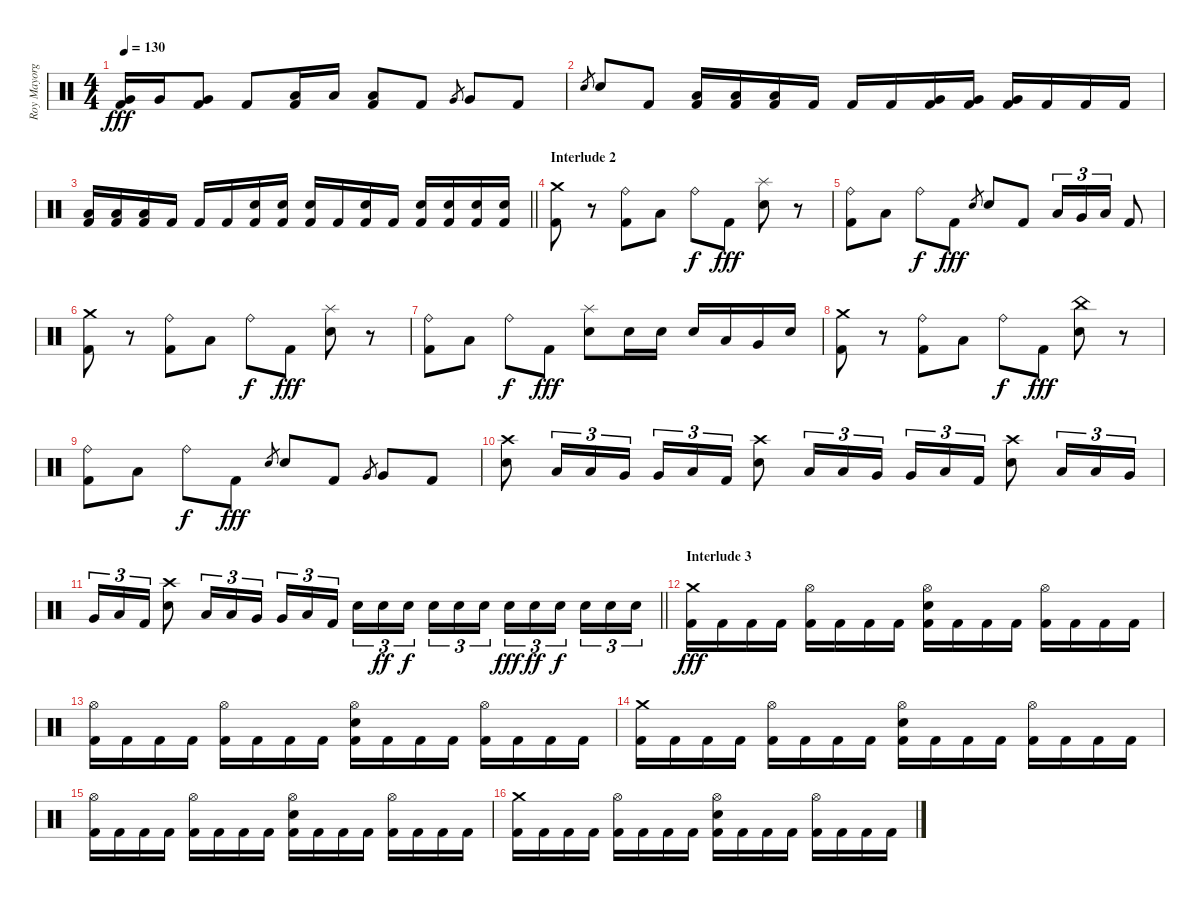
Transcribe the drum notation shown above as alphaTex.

\track ("Roy Mayorga" "Roy Mayorg") {instrument percussion}
\staff {score}
\articulation defaults
\ts (4 4)
\tempo 130
\clef neutral
\ks c
("Very Low Tom (hit)" "Kick (hit) 2").16{dy fff} "Very Low Tom (hit)".16 ("Very Low Tom (hit)" "Kick (hit) 2").8 "Kick (hit) 2".8 ("Low Floor Tom (hit)" "Kick (hit) 2").16 "Low Floor Tom (hit)".16 ("Low Floor Tom (hit)" "Kick (hit) 2").8 "Kick (hit) 2".8 "Very Low Tom (hit)".8{gr} "Very Low Tom (hit)".8 "Kick (hit) 2".8 |
"Electric Snare (hit)".8{gr} "Electric Snare (hit)".8 "Kick (hit) 2".8 ("Low Tom (hit)" "Kick (hit) 2").16 ("Low Tom (hit)" "Kick (hit) 2").16 ("Low Tom (hit)" "Kick (hit) 2").16 "Kick (hit) 2".16 "Kick (hit) 2".16 "Kick (hit) 2".16 ("Very Low Tom (hit)" "Kick (hit) 2").16 ("Very Low Tom (hit)" "Kick (hit) 2").16 ("Very Low Tom (hit)" "Kick (hit) 2").16 "Kick (hit) 2".16 "Kick (hit) 2".16 "Kick (hit) 2".16 |
\barLineRight lightlight
("Low Floor Tom (hit)" "Kick (hit) 2").16 ("Low Floor Tom (hit)" "Kick (hit) 2").16 ("Low Floor Tom (hit)" "Kick (hit) 2").16 "Kick (hit) 2".16 "Kick (hit) 2".16 "Kick (hit) 2".16 ("Electric Snare (hit)" "Kick (hit) 2").16 ("Electric Snare (hit)" "Kick (hit) 2").16 ("Electric Snare (hit)" "Kick (hit) 2").16 "Kick (hit) 2".16 ("Electric Snare (hit)" "Kick (hit) 2").16 "Kick (hit) 2".16 ("Electric Snare (hit)" "Kick (hit) 2").16 ("Electric Snare (hit)" "Kick (hit) 2").16 ("Electric Snare (hit)" "Kick (hit) 2").16 ("Electric Snare (hit)" "Kick (hit) 2").16 |
\section ("" "Interlude 2")
("Crash medium (hit)" "Kick (hit) 2").8 r.8 ("Ride (bell)" "Kick (hit) 2").8 "Low Tom (hit)".8 "Ride (bell)".8{dy f} "Kick (hit) 2".8{dy fff} ("Splash (hit)" "Electric Snare (hit)").8 r.8 |
("Ride (bell)" "Kick (hit) 2").8 "Low Tom (hit)".8 "Ride (bell)".8{dy f} "Kick (hit) 2".8{dy fff} "Electric Snare (hit)".8{gr} "Electric Snare (hit)".8 "Kick (hit) 2".8 "Low Tom (hit)".16{tu (3 2)} "Very Low Tom (hit)".16{tu (3 2)} "Low Floor Tom (hit)".16{tu (3 2)} "Kick (hit) 2".8 |
("Crash medium (hit)" "Kick (hit) 2").8 r.8 ("Ride (bell)" "Kick (hit) 2").8 "Low Tom (hit)".8 "Ride (bell)".8{dy f} "Kick (hit) 2".8{dy fff} ("Splash (hit)" "Electric Snare (hit)").8 r.8 |
("Ride (bell)" "Kick (hit) 2").8 "Low Tom (hit)".8 "Ride (bell)".8{dy f} "Kick (hit) 2".8{dy fff} ("Splash (hit)" "Electric Snare (hit)").8 "Electric Snare (hit)".16 "Electric Snare (hit)".16 "Electric Snare (hit)".16 "Low Tom (hit)".16 "Very Low Tom (hit)".16 "Electric Snare (hit)".16 |
("Crash medium (hit)" "Kick (hit) 2").8 r.8 ("Ride (bell)" "Kick (hit) 2").8 "Low Tom (hit)".8 "Ride (bell)".8{dy f} "Kick (hit) 2".8{dy fff} ("China (hit)" "Electric Snare (hit)").8 r.8 |
("Ride (bell)" "Kick (hit) 2").8 "Low Tom (hit)".8 "Ride (bell)".8{dy f} "Kick (hit) 2".8{dy fff} "Electric Snare (hit)".8{gr} "Electric Snare (hit)".8 "Kick (hit) 2".8 "Very Low Tom (hit)".8{gr} "Very Low Tom (hit)".8 "Kick (hit) 2".8 |
("Crash high (hit)" "Electric Snare (hit)").8 "Low Tom (hit)".16{tu (3 2)} "Low Tom (hit)".16{tu (3 2)} "Very Low Tom (hit)".16{tu (3 2)} "Very Low Tom (hit)".16{tu (3 2)} "Low Floor Tom (hit)".16{tu (3 2)} "Kick (hit) 2".16{tu (3 2)} ("Crash high (hit)" "Electric Snare (hit)").8 "Low Tom (hit)".16{tu (3 2)} "Low Tom (hit)".16{tu (3 2)} "Very Low Tom (hit)".16{tu (3 2) beam splitsecondary} "Very Low Tom (hit)".16{tu (3 2)} "Low Floor Tom (hit)".16{tu (3 2)} "Kick (hit) 2".16{tu (3 2)} ("Crash high (hit)" "Electric Snare (hit)").8 "Low Tom (hit)".16{tu (3 2)} "Low Tom (hit)".16{tu (3 2)} "Very Low Tom (hit)".16{tu (3 2)} |
\barLineRight lightlight "Very Low Tom (hit)".16{tu (3 2)} "Low Floor Tom (hit)".16{tu (3 2)} "Kick (hit) 2".16{tu (3 2)}
("Crash high (hit)" "Electric Snare (hit)").8 "Low Tom (hit)".16{tu (3 2)} "Low Tom (hit)".16{tu (3 2)} "Very Low Tom (hit)".16{tu (3 2) beam splitsecondary} "Very Low Tom (hit)".16{tu (3 2)} "Low Floor Tom (hit)".16{tu (3 2)} "Kick (hit) 2".16{tu (3 2)} "Electric Snare (hit)".16{tu (3 2)} "Electric Snare (hit)".16{tu (3 2) dy ff} "Electric Snare (hit)".16{tu (3 2) dy f beam splitsecondary} "Electric Snare (hit)".16{tu (3 2)} "Electric Snare (hit)".16{tu (3 2)} "Electric Snare (hit)".16{tu (3 2)} "Electric Snare (hit)".16{tu (3 2) dy fff} "Electric Snare (hit)".16{tu (3 2) dy ff} "Electric Snare (hit)".16{tu (3 2) dy f beam splitsecondary} "Electric Snare (hit)".16{tu (3 2)} "Electric Snare (hit)".16{tu (3 2)} "Electric Snare (hit)".16{tu (3 2)} |
\section ("" "Interlude 3")
("Crash medium (hit)" "Kick (hit) 2").16{dy fff} "Kick (hit) 2".16 "Kick (hit) 2".16 "Kick (hit) 2".16 ("Hi-Hat (open)" "Kick (hit) 2").16 "Kick (hit) 2".16 "Kick (hit) 2".16 "Kick (hit) 2".16 ("Hi-Hat (open)" "Electric Snare (hit)" "Kick (hit) 2").16 "Kick (hit) 2".16 "Kick (hit) 2".16 "Kick (hit) 2".16 ("Hi-Hat (open)" "Kick (hit) 2").16 "Kick (hit) 2".16 "Kick (hit) 2".16 "Kick (hit) 2".16 |
("Hi-Hat (open)" "Kick (hit) 2").16 "Kick (hit) 2".16 "Kick (hit) 2".16 "Kick (hit) 2".16 ("Hi-Hat (open)" "Kick (hit) 2").16 "Kick (hit) 2".16 "Kick (hit) 2".16 "Kick (hit) 2".16 ("Hi-Hat (open)" "Electric Snare (hit)" "Kick (hit) 2").16 "Kick (hit) 2".16 "Kick (hit) 2".16 "Kick (hit) 2".16 ("Hi-Hat (open)" "Kick (hit) 2").16 "Kick (hit) 2".16 "Kick (hit) 2".16 "Kick (hit) 2".16 |
("Crash medium (hit)" "Kick (hit) 2").16 "Kick (hit) 2".16 "Kick (hit) 2".16 "Kick (hit) 2".16 ("Hi-Hat (open)" "Kick (hit) 2").16 "Kick (hit) 2".16 "Kick (hit) 2".16 "Kick (hit) 2".16 ("Hi-Hat (open)" "Electric Snare (hit)" "Kick (hit) 2").16 "Kick (hit) 2".16 "Kick (hit) 2".16 "Kick (hit) 2".16 ("Hi-Hat (open)" "Kick (hit) 2").16 "Kick (hit) 2".16 "Kick (hit) 2".16 "Kick (hit) 2".16 |
("Hi-Hat (open)" "Kick (hit) 2").16 "Kick (hit) 2".16 "Kick (hit) 2".16 "Kick (hit) 2".16 ("Hi-Hat (open)" "Kick (hit) 2").16 "Kick (hit) 2".16 "Kick (hit) 2".16 "Kick (hit) 2".16 ("Hi-Hat (open)" "Electric Snare (hit)" "Kick (hit) 2").16 "Kick (hit) 2".16 "Kick (hit) 2".16 "Kick (hit) 2".16 ("Hi-Hat (open)" "Kick (hit) 2").16 "Kick (hit) 2".16 "Kick (hit) 2".16 "Kick (hit) 2".16 |
("Crash medium (hit)" "Kick (hit) 2").16 "Kick (hit) 2".16 "Kick (hit) 2".16 "Kick (hit) 2".16 ("Hi-Hat (open)" "Kick (hit) 2").16 "Kick (hit) 2".16 "Kick (hit) 2".16 "Kick (hit) 2".16 ("Hi-Hat (open)" "Electric Snare (hit)" "Kick (hit) 2").16 "Kick (hit) 2".16 "Kick (hit) 2".16 "Kick (hit) 2".16 ("Hi-Hat (open)" "Kick (hit) 2").16 "Kick (hit) 2".16 "Kick (hit) 2".16 "Kick (hit) 2".16
